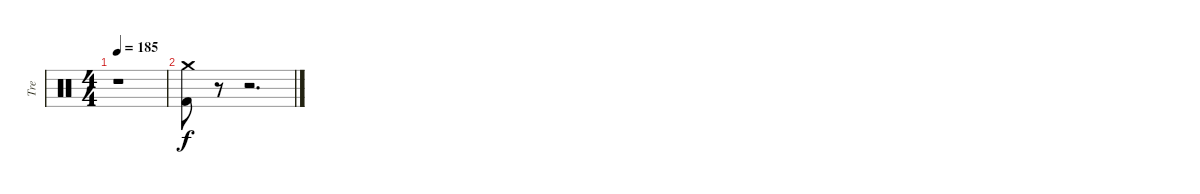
\track ("Tre" "Tre") {instrument percussion}
\staff {score}
\articulation defaults
\ts (4 4)
\tempo 185
\clef neutral
\ks c
r.1{dy f} |
("Crash medium (hit)" "Kick (hit) 2").8 r.8 r.2{d}
